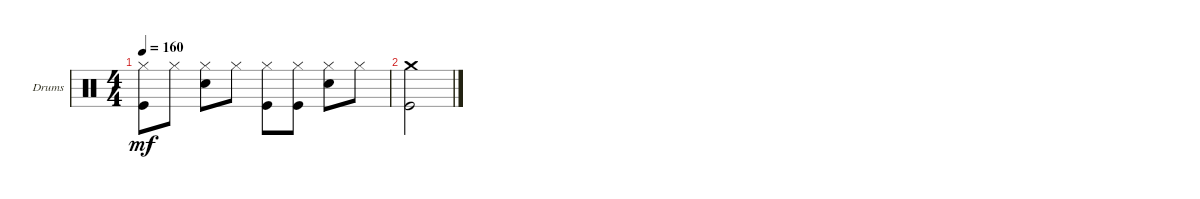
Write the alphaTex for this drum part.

\defaultSystemsLayout 4
\bracketExtendMode groupsimilarinstruments
\firstSystemTrackNameOrientation horizontal
\otherSystemsTrackNameOrientation horizontal
\track ("Drumkit" "Drums") {instrument percussion}
\staff {score}
\articulation defaults
\ts (4 4)
\tempo 160
\clef neutral
\ks c
("Kick (hit)" "Hi-Hat (closed)").8{dy mf} "Hi-Hat (closed)".8 ("Snare (hit) 2" "Hi-Hat (closed)").8 "Hi-Hat (closed)".8 ("Hi-Hat (closed)" "Kick (hit)").8 ("Kick (hit)" "Hi-Hat (closed)").8 ("Snare (hit) 2" "Hi-Hat (closed)").8 "Hi-Hat (closed)".8 |
("Kick (hit)" "Crash medium (hit)").2
